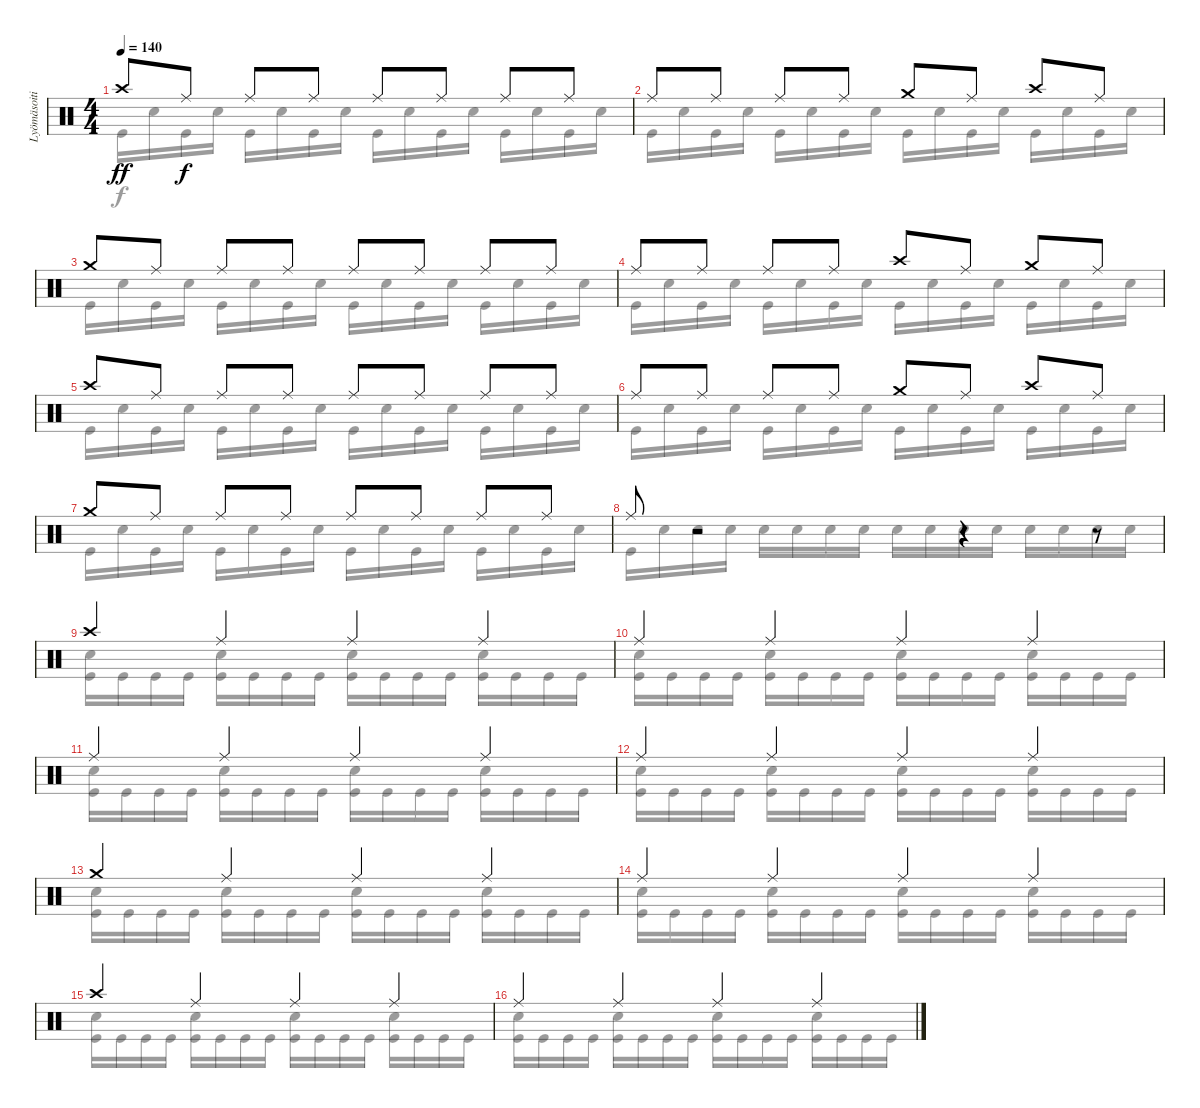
\track ("Lyömäsoitin" "Lyömäsoiti") {instrument percussion}
\staff {score}
\articulation defaults
\voice
\ts (4 4)
\tempo 140
\clef neutral
\ks c "Crash high (hit)".8{dy ff} "Ride (middle)".8{dy f} "Ride (middle)".8 "Ride (middle)".8 "Ride (middle)".8 "Ride (middle)".8 "Ride (middle)".8 "Ride (middle)".8
|
"Ride (middle)".8 "Ride (middle)".8 "Ride (middle)".8 "Ride (middle)".8 "Crash medium (hit)".8 "Ride (middle)".8 "Crash high (hit)".8 "Ride (middle)".8 |
"Crash medium (hit)".8 "Ride (middle)".8 "Ride (middle)".8 "Ride (middle)".8 "Ride (middle)".8 "Ride (middle)".8 "Ride (middle)".8 "Ride (middle)".8 |
"Ride (middle)".8 "Ride (middle)".8 "Ride (middle)".8 "Ride (middle)".8 "Crash high (hit)".8 "Ride (middle)".8 "Crash medium (hit)".8 "Ride (middle)".8 |
"Crash high (hit)".8 "Ride (middle)".8 "Ride (middle)".8 "Ride (middle)".8 "Ride (middle)".8 "Ride (middle)".8 "Ride (middle)".8 "Ride (middle)".8 |
"Ride (middle)".8 "Ride (middle)".8 "Ride (middle)".8 "Ride (middle)".8 "Crash medium (hit)".8 "Ride (middle)".8 "Crash high (hit)".8 "Ride (middle)".8 |
"Crash medium (hit)".8 "Ride (middle)".8 "Ride (middle)".8 "Ride (middle)".8 "Ride (middle)".8 "Ride (middle)".8 "Ride (middle)".8 "Ride (middle)".8 |
"Ride (middle)".8 r.2 r.4 r.8 |
"Crash high (hit)".4 "Ride (middle)".4 "Ride (middle)".4 "Ride (middle)".4 |
"Ride (middle)".4 "Ride (middle)".4 "Ride (middle)".4 "Ride (middle)".4 |
"Ride (middle)".4 "Ride (middle)".4 "Ride (middle)".4 "Ride (middle)".4 |
"Ride (middle)".4 "Ride (middle)".4 "Ride (middle)".4 "Ride (middle)".4 |
"Crash medium (hit)".4 "Ride (middle)".4 "Ride (middle)".4 "Ride (middle)".4 |
"Ride (middle)".4 "Ride (middle)".4 "Ride (middle)".4 "Ride (middle)".4 |
"Crash high (hit)".4 "Ride (middle)".4 "Ride (middle)".4 "Ride (middle)".4 |
"Ride (middle)".4 "Ride (middle)".4 "Ride (middle)".4 "Ride (middle)".4
\voice
\clef neutral
\ottava regular
\simile none
\ks c "Kick (hit)".16{dy f} "Snare (hit) 2".16 "Kick (hit)".16 "Snare (hit) 2".16 "Kick (hit)".16 "Snare (hit) 2".16 "Kick (hit)".16 "Snare (hit) 2".16 "Kick (hit)".16 "Snare (hit) 2".16 "Kick (hit)".16 "Snare (hit) 2".16 "Kick (hit)".16 "Snare (hit) 2".16 "Kick (hit)".16 "Snare (hit) 2".16
|
"Kick (hit)".16 "Snare (hit) 2".16 "Kick (hit)".16 "Snare (hit) 2".16 "Kick (hit)".16 "Snare (hit) 2".16 "Kick (hit)".16 "Snare (hit) 2".16 "Kick (hit)".16 "Snare (hit) 2".16 "Kick (hit)".16 "Snare (hit) 2".16 "Kick (hit)".16 "Snare (hit) 2".16 "Kick (hit)".16 "Snare (hit) 2".16 |
"Kick (hit)".16 "Snare (hit) 2".16 "Kick (hit)".16 "Snare (hit) 2".16 "Kick (hit)".16 "Snare (hit) 2".16 "Kick (hit)".16 "Snare (hit) 2".16 "Kick (hit)".16 "Snare (hit) 2".16 "Kick (hit)".16 "Snare (hit) 2".16 "Kick (hit)".16 "Snare (hit) 2".16 "Kick (hit)".16 "Snare (hit) 2".16 |
"Kick (hit)".16 "Snare (hit) 2".16 "Kick (hit)".16 "Snare (hit) 2".16 "Kick (hit)".16 "Snare (hit) 2".16 "Kick (hit)".16 "Snare (hit) 2".16 "Kick (hit)".16 "Snare (hit) 2".16 "Kick (hit)".16 "Snare (hit) 2".16 "Kick (hit)".16 "Snare (hit) 2".16 "Kick (hit)".16 "Snare (hit) 2".16 |
"Kick (hit)".16 "Snare (hit) 2".16 "Kick (hit)".16 "Snare (hit) 2".16 "Kick (hit)".16 "Snare (hit) 2".16 "Kick (hit)".16 "Snare (hit) 2".16 "Kick (hit)".16 "Snare (hit) 2".16 "Kick (hit)".16 "Snare (hit) 2".16 "Kick (hit)".16 "Snare (hit) 2".16 "Kick (hit)".16 "Snare (hit) 2".16 |
"Kick (hit)".16 "Snare (hit) 2".16 "Kick (hit)".16 "Snare (hit) 2".16 "Kick (hit)".16 "Snare (hit) 2".16 "Kick (hit)".16 "Snare (hit) 2".16 "Kick (hit)".16 "Snare (hit) 2".16 "Kick (hit)".16 "Snare (hit) 2".16 "Kick (hit)".16 "Snare (hit) 2".16 "Kick (hit)".16 "Snare (hit) 2".16 |
"Kick (hit)".16 "Snare (hit) 2".16 "Kick (hit)".16 "Snare (hit) 2".16 "Kick (hit)".16 "Snare (hit) 2".16 "Kick (hit)".16 "Snare (hit) 2".16 "Kick (hit)".16 "Snare (hit) 2".16 "Kick (hit)".16 "Snare (hit) 2".16 "Kick (hit)".16 "Snare (hit) 2".16 "Kick (hit)".16 "Snare (hit) 2".16 |
"Kick (hit)".16 "Snare (hit) 2".16 "Snare (hit) 2".16 "Snare (hit) 2".16 "Snare (hit) 2".16 "Snare (hit) 2".16 "Snare (hit) 2".16 "Snare (hit) 2".16 "Snare (hit) 2".16 "Snare (hit) 2".16 "Snare (hit) 2".16 "Snare (hit) 2".16 "Snare (hit) 2".16 "Snare (hit) 2".16 "Snare (hit) 2".16 "Snare (hit) 2".16 |
("Snare (hit) 2" "Kick (hit)").16 "Kick (hit)".16 "Kick (hit)".16 "Kick (hit)".16 ("Snare (hit) 2" "Kick (hit)").16 "Kick (hit)".16 "Kick (hit)".16 "Kick (hit)".16 ("Snare (hit) 2" "Kick (hit)").16 "Kick (hit)".16 "Kick (hit)".16 "Kick (hit)".16 ("Snare (hit) 2" "Kick (hit)").16 "Kick (hit)".16 "Kick (hit)".16 "Kick (hit)".16 |
("Snare (hit) 2" "Kick (hit)").16 "Kick (hit)".16 "Kick (hit)".16 "Kick (hit)".16 ("Snare (hit) 2" "Kick (hit)").16 "Kick (hit)".16 "Kick (hit)".16 "Kick (hit)".16 ("Snare (hit) 2" "Kick (hit)").16 "Kick (hit)".16 "Kick (hit)".16 "Kick (hit)".16 ("Snare (hit) 2" "Kick (hit)").16 "Kick (hit)".16 "Kick (hit)".16 "Kick (hit)".16 |
("Snare (hit) 2" "Kick (hit)").16 "Kick (hit)".16 "Kick (hit)".16 "Kick (hit)".16 ("Snare (hit) 2" "Kick (hit)").16 "Kick (hit)".16 "Kick (hit)".16 "Kick (hit)".16 ("Snare (hit) 2" "Kick (hit)").16 "Kick (hit)".16 "Kick (hit)".16 "Kick (hit)".16 ("Snare (hit) 2" "Kick (hit)").16 "Kick (hit)".16 "Kick (hit)".16 "Kick (hit)".16 |
("Snare (hit) 2" "Kick (hit)").16 "Kick (hit)".16 "Kick (hit)".16 "Kick (hit)".16 ("Snare (hit) 2" "Kick (hit)").16 "Kick (hit)".16 "Kick (hit)".16 "Kick (hit)".16 ("Snare (hit) 2" "Kick (hit)").16 "Kick (hit)".16 "Kick (hit)".16 "Kick (hit)".16 ("Snare (hit) 2" "Kick (hit)").16 "Kick (hit)".16 "Kick (hit)".16 "Kick (hit)".16 |
("Snare (hit) 2" "Kick (hit)").16 "Kick (hit)".16 "Kick (hit)".16 "Kick (hit)".16 ("Snare (hit) 2" "Kick (hit)").16 "Kick (hit)".16 "Kick (hit)".16 "Kick (hit)".16 ("Snare (hit) 2" "Kick (hit)").16 "Kick (hit)".16 "Kick (hit)".16 "Kick (hit)".16 ("Snare (hit) 2" "Kick (hit)").16 "Kick (hit)".16 "Kick (hit)".16 "Kick (hit)".16 |
("Snare (hit) 2" "Kick (hit)").16 "Kick (hit)".16 "Kick (hit)".16 "Kick (hit)".16 ("Snare (hit) 2" "Kick (hit)").16 "Kick (hit)".16 "Kick (hit)".16 "Kick (hit)".16 ("Snare (hit) 2" "Kick (hit)").16 "Kick (hit)".16 "Kick (hit)".16 "Kick (hit)".16 ("Snare (hit) 2" "Kick (hit)").16 "Kick (hit)".16 "Kick (hit)".16 "Kick (hit)".16 |
("Snare (hit) 2" "Kick (hit)").16 "Kick (hit)".16 "Kick (hit)".16 "Kick (hit)".16 ("Snare (hit) 2" "Kick (hit)").16 "Kick (hit)".16 "Kick (hit)".16 "Kick (hit)".16 ("Snare (hit) 2" "Kick (hit)").16 "Kick (hit)".16 "Kick (hit)".16 "Kick (hit)".16 ("Snare (hit) 2" "Kick (hit)").16 "Kick (hit)".16 "Kick (hit)".16 "Kick (hit)".16 |
("Snare (hit) 2" "Kick (hit)").16 "Kick (hit)".16 "Kick (hit)".16 "Kick (hit)".16 ("Snare (hit) 2" "Kick (hit)").16 "Kick (hit)".16 "Kick (hit)".16 "Kick (hit)".16 ("Snare (hit) 2" "Kick (hit)").16 "Kick (hit)".16 "Kick (hit)".16 "Kick (hit)".16 ("Snare (hit) 2" "Kick (hit)").16 "Kick (hit)".16 "Kick (hit)".16 "Kick (hit)".16
